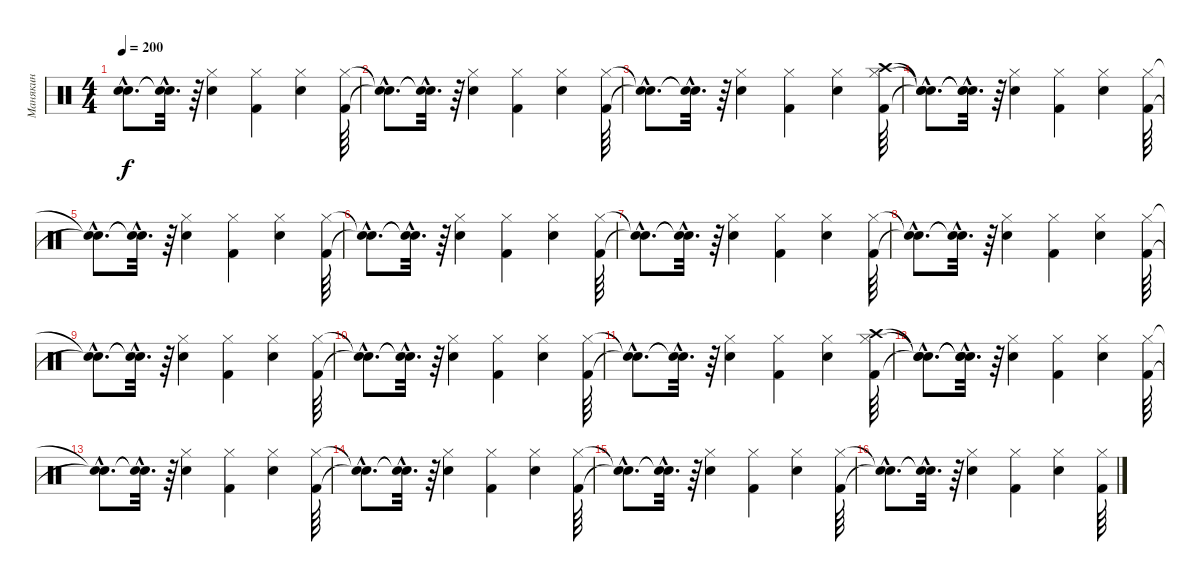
\track ("Манякин" "Манякин") {instrument percussion}
\staff {score}
\articulation defaults
\ts (4 4)
\tempo 200
\clef neutral
\ks c
("Snare (hit)"{hac t} "Snare (hit)"{hac t}).8{d dy f} ("Snare (hit)"{hac t} "Snare (hit)"{hac t}).32{d} r.64 ("Hi-Hat (closed)" "Snare (hit) 2").4 ("Hi-Hat (closed)" "Kick (hit) 2").4 ("Snare (hit) 2" "Hi-Hat (closed)").4 ("Hi-Hat (closed)" "Kick (hit) 2").64 |
("Snare (hit)"{hac t} "Snare (hit)"{hac t}).8{d} ("Snare (hit)"{hac t} "Snare (hit)"{hac t}).32{d} r.64 ("Hi-Hat (closed)" "Snare (hit) 2").4 ("Hi-Hat (closed)" "Kick (hit) 2").4 ("Hi-Hat (closed)" "Snare (hit) 2").4 ("Hi-Hat (closed)" "Kick (hit) 2").64 |
("Snare (hit)"{hac t} "Snare (hit)"{hac t}).8{d} ("Snare (hit)"{hac t} "Snare (hit)"{hac t}).32{d} r.64 ("Hi-Hat (closed)" "Snare (hit) 2").4 ("Hi-Hat (closed)" "Kick (hit) 2").4 ("Snare (hit) 2" "Hi-Hat (closed)").4 ("Crash high (hit)" "Hi-Hat (closed)" "Kick (hit) 2").64 |
("Snare (hit)"{hac t} "Snare (hit)"{hac t} "Snare (hit)"{hac t}).8{d} ("Snare (hit)"{hac t} "Snare (hit)"{hac t} "Snare (hit)"{hac t}).32{d} r.64 ("Hi-Hat (closed)" "Snare (hit) 2").4 ("Hi-Hat (closed)" "Kick (hit) 2").4 ("Hi-Hat (closed)" "Snare (hit) 2").4 ("Hi-Hat (closed)" "Kick (hit) 2").64 |
("Snare (hit)"{hac t} "Snare (hit)"{hac t}).8{d} ("Snare (hit)"{hac t} "Snare (hit)"{hac t}).32{d} r.64 ("Hi-Hat (closed)" "Snare (hit) 2").4 ("Hi-Hat (closed)" "Kick (hit) 2").4 ("Snare (hit) 2" "Hi-Hat (closed)").4 ("Hi-Hat (closed)" "Kick (hit) 2").64 |
("Snare (hit)"{hac t} "Snare (hit)"{hac t}).8{d} ("Snare (hit)"{hac t} "Snare (hit)"{hac t}).32{d} r.64 ("Hi-Hat (closed)" "Snare (hit) 2").4 ("Hi-Hat (closed)" "Kick (hit) 2").4 ("Hi-Hat (closed)" "Snare (hit) 2").4 ("Hi-Hat (closed)" "Kick (hit) 2").64 |
("Snare (hit)"{hac t} "Snare (hit)"{hac t}).8{d} ("Snare (hit)"{hac t} "Snare (hit)"{hac t}).32{d} r.64 ("Hi-Hat (closed)" "Snare (hit) 2").4 ("Hi-Hat (closed)" "Kick (hit) 2").4 ("Snare (hit) 2" "Hi-Hat (closed)").4 ("Hi-Hat (closed)" "Kick (hit) 2").64 |
("Snare (hit)"{hac t} "Snare (hit)"{hac t}).8{d} ("Snare (hit)"{hac t} "Snare (hit)"{hac t}).32{d} r.64 ("Hi-Hat (closed)" "Snare (hit) 2").4 ("Hi-Hat (closed)" "Kick (hit) 2").4 ("Hi-Hat (closed)" "Snare (hit) 2").4 ("Hi-Hat (closed)" "Kick (hit) 2").64 |
("Snare (hit)"{hac t} "Snare (hit)"{hac t}).8{d} ("Snare (hit)"{hac t} "Snare (hit)"{hac t}).32{d} r.64 ("Hi-Hat (closed)" "Snare (hit) 2").4 ("Hi-Hat (closed)" "Kick (hit) 2").4 ("Snare (hit) 2" "Hi-Hat (closed)").4 ("Hi-Hat (closed)" "Kick (hit) 2").64 |
("Snare (hit)"{hac t} "Snare (hit)"{hac t}).8{d} ("Snare (hit)"{hac t} "Snare (hit)"{hac t}).32{d} r.64 ("Hi-Hat (closed)" "Snare (hit) 2").4 ("Hi-Hat (closed)" "Kick (hit) 2").4 ("Hi-Hat (closed)" "Snare (hit) 2").4 ("Hi-Hat (closed)" "Kick (hit) 2").64 |
("Snare (hit)"{hac t} "Snare (hit)"{hac t}).8{d} ("Snare (hit)"{hac t} "Snare (hit)"{hac t}).32{d} r.64 ("Hi-Hat (closed)" "Snare (hit) 2").4 ("Hi-Hat (closed)" "Kick (hit) 2").4 ("Snare (hit) 2" "Hi-Hat (closed)").4 ("Crash high (hit)" "Hi-Hat (closed)" "Kick (hit) 2").64 |
("Snare (hit)"{hac t} "Snare (hit)"{hac t} "Snare (hit)"{hac t}).8{d} ("Snare (hit)"{hac t} "Snare (hit)"{hac t} "Snare (hit)"{hac t}).32{d} r.64 ("Hi-Hat (closed)" "Snare (hit) 2").4 ("Hi-Hat (closed)" "Kick (hit) 2").4 ("Hi-Hat (closed)" "Snare (hit) 2").4 ("Hi-Hat (closed)" "Kick (hit) 2").64 |
("Snare (hit)"{hac t} "Snare (hit)"{hac t}).8{d} ("Snare (hit)"{hac t} "Snare (hit)"{hac t}).32{d} r.64 ("Hi-Hat (closed)" "Snare (hit) 2").4 ("Hi-Hat (closed)" "Kick (hit) 2").4 ("Snare (hit) 2" "Hi-Hat (closed)").4 ("Hi-Hat (closed)" "Kick (hit) 2").64 |
("Snare (hit)"{hac t} "Snare (hit)"{hac t}).8{d} ("Snare (hit)"{hac t} "Snare (hit)"{hac t}).32{d} r.64 ("Hi-Hat (closed)" "Snare (hit) 2").4 ("Hi-Hat (closed)" "Kick (hit) 2").4 ("Hi-Hat (closed)" "Snare (hit) 2").4 ("Hi-Hat (closed)" "Kick (hit) 2").64 |
("Snare (hit)"{hac t} "Snare (hit)"{hac t}).8{d} ("Snare (hit)"{hac t} "Snare (hit)"{hac t}).32{d} r.64 ("Hi-Hat (closed)" "Snare (hit) 2").4 ("Hi-Hat (closed)" "Kick (hit) 2").4 ("Snare (hit) 2" "Hi-Hat (closed)").4 ("Hi-Hat (closed)" "Kick (hit) 2").64 |
("Snare (hit)"{hac t} "Snare (hit)"{hac t}).8{d} ("Snare (hit)"{hac t} "Snare (hit)"{hac t}).32{d} r.64 ("Hi-Hat (closed)" "Snare (hit) 2").4 ("Hi-Hat (closed)" "Kick (hit) 2").4 ("Hi-Hat (closed)" "Snare (hit) 2").4 ("Hi-Hat (closed)" "Kick (hit) 2").64
